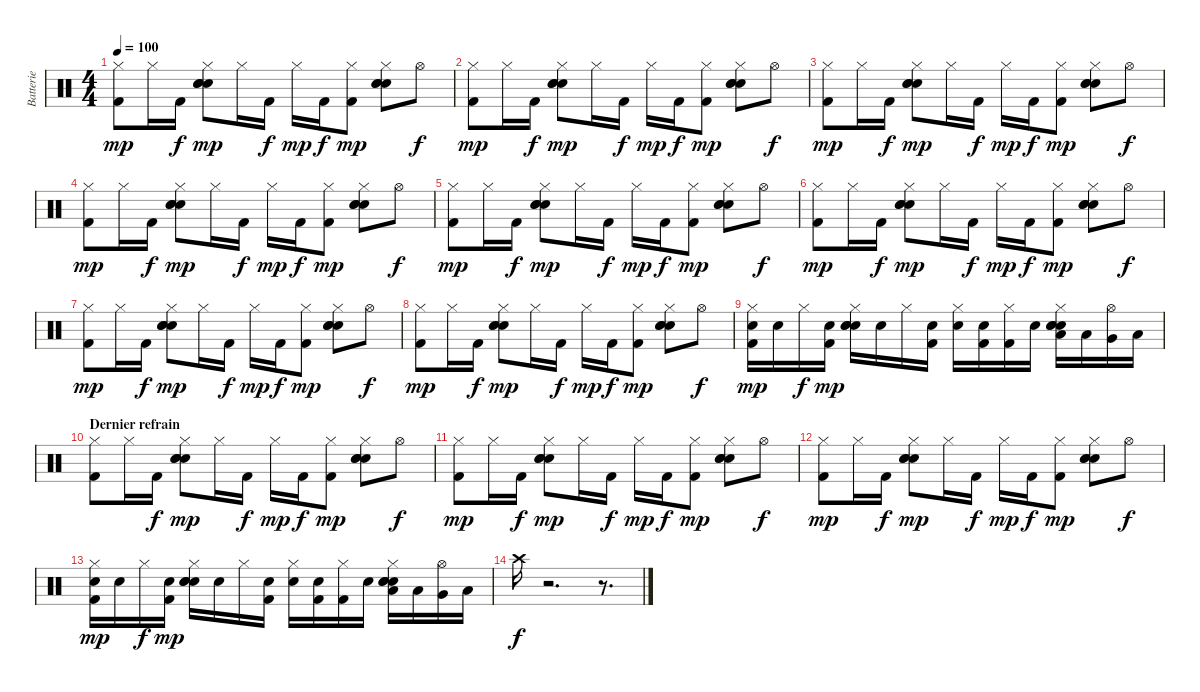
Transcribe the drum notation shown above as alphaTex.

\track ("Batterie" "Batterie") {instrument percussion}
\staff {score}
\articulation defaults
\ts (4 4)
\tempo 100
\clef neutral
\ks c
("Kick (hit) 2" "Hi-Hat (closed)").8{dy mp} "Hi-Hat (closed)".16 "Kick (hit) 2".16{dy f} ("Snare (hit) 2" "Snare (hit) 2" "Electric Snare (hit)" "Hi-Hat (closed)").8{dy mp} "Hi-Hat (closed)".16 "Kick (hit) 2".16{dy f} "Hi-Hat (closed)".16{dy mp} "Kick (hit) 2".16{dy f} ("Kick (hit) 2" "Hi-Hat (closed)").8{dy mp} ("Snare (hit) 2" "Snare (hit) 2" "Electric Snare (hit)" "Hi-Hat (closed)").8 "Hi-Hat (open)".8{dy f} |
("Kick (hit) 2" "Hi-Hat (closed)").8{dy mp} "Hi-Hat (closed)".16 "Kick (hit) 2".16{dy f} ("Snare (hit) 2" "Snare (hit) 2" "Electric Snare (hit)" "Hi-Hat (closed)").8{dy mp} "Hi-Hat (closed)".16 "Kick (hit) 2".16{dy f} "Hi-Hat (closed)".16{dy mp} "Kick (hit) 2".16{dy f} ("Kick (hit) 2" "Hi-Hat (closed)").8{dy mp} ("Snare (hit) 2" "Snare (hit) 2" "Electric Snare (hit)" "Hi-Hat (closed)").8 "Hi-Hat (open)".8{dy f} |
("Kick (hit) 2" "Hi-Hat (closed)").8{dy mp} "Hi-Hat (closed)".16 "Kick (hit) 2".16{dy f} ("Snare (hit) 2" "Snare (hit) 2" "Electric Snare (hit)" "Hi-Hat (closed)").8{dy mp} "Hi-Hat (closed)".16 "Kick (hit) 2".16{dy f} "Hi-Hat (closed)".16{dy mp} "Kick (hit) 2".16{dy f} ("Kick (hit) 2" "Hi-Hat (closed)").8{dy mp} ("Snare (hit) 2" "Snare (hit) 2" "Electric Snare (hit)" "Hi-Hat (closed)").8 "Hi-Hat (open)".8{dy f} |
("Kick (hit) 2" "Hi-Hat (closed)").8{dy mp} "Hi-Hat (closed)".16 "Kick (hit) 2".16{dy f} ("Snare (hit) 2" "Snare (hit) 2" "Electric Snare (hit)" "Hi-Hat (closed)").8{dy mp} "Hi-Hat (closed)".16 "Kick (hit) 2".16{dy f} "Hi-Hat (closed)".16{dy mp} "Kick (hit) 2".16{dy f} ("Kick (hit) 2" "Hi-Hat (closed)").8{dy mp} ("Snare (hit) 2" "Snare (hit) 2" "Electric Snare (hit)" "Hi-Hat (closed)").8 "Hi-Hat (open)".8{dy f} |
("Kick (hit) 2" "Hi-Hat (closed)").8{dy mp} "Hi-Hat (closed)".16 "Kick (hit) 2".16{dy f} ("Snare (hit) 2" "Snare (hit) 2" "Electric Snare (hit)" "Hi-Hat (closed)").8{dy mp} "Hi-Hat (closed)".16 "Kick (hit) 2".16{dy f} "Hi-Hat (closed)".16{dy mp} "Kick (hit) 2".16{dy f} ("Kick (hit) 2" "Hi-Hat (closed)").8{dy mp} ("Snare (hit) 2" "Snare (hit) 2" "Electric Snare (hit)" "Hi-Hat (closed)").8 "Hi-Hat (open)".8{dy f} |
("Kick (hit) 2" "Hi-Hat (closed)").8{dy mp} "Hi-Hat (closed)".16 "Kick (hit) 2".16{dy f} ("Snare (hit) 2" "Snare (hit) 2" "Electric Snare (hit)" "Hi-Hat (closed)").8{dy mp} "Hi-Hat (closed)".16 "Kick (hit) 2".16{dy f} "Hi-Hat (closed)".16{dy mp} "Kick (hit) 2".16{dy f} ("Kick (hit) 2" "Hi-Hat (closed)").8{dy mp} ("Snare (hit) 2" "Snare (hit) 2" "Electric Snare (hit)" "Hi-Hat (closed)").8 "Hi-Hat (open)".8{dy f} |
("Kick (hit) 2" "Hi-Hat (closed)").8{dy mp} "Hi-Hat (closed)".16 "Kick (hit) 2".16{dy f} ("Snare (hit) 2" "Snare (hit) 2" "Electric Snare (hit)" "Hi-Hat (closed)").8{dy mp} "Hi-Hat (closed)".16 "Kick (hit) 2".16{dy f} "Hi-Hat (closed)".16{dy mp} "Kick (hit) 2".16{dy f} ("Kick (hit) 2" "Hi-Hat (closed)").8{dy mp} ("Snare (hit) 2" "Snare (hit) 2" "Electric Snare (hit)" "Hi-Hat (closed)").8 "Hi-Hat (open)".8{dy f} |
("Kick (hit) 2" "Hi-Hat (closed)").8{dy mp} "Hi-Hat (closed)".16 "Kick (hit) 2".16{dy f} ("Snare (hit) 2" "Snare (hit) 2" "Electric Snare (hit)" "Hi-Hat (closed)").8{dy mp} "Hi-Hat (closed)".16 "Kick (hit) 2".16{dy f} "Hi-Hat (closed)".16{dy mp} "Kick (hit) 2".16{dy f} ("Kick (hit) 2" "Hi-Hat (closed)").8{dy mp} ("Snare (hit) 2" "Snare (hit) 2" "Electric Snare (hit)" "Hi-Hat (closed)").8 "Hi-Hat (open)".8{dy f} |
("Electric Snare (hit)" "Kick (hit) 2" "Hi-Hat (closed)").16{dy mp} "Electric Snare (hit)".16 "Hi-Hat (closed)".16{dy f} ("Electric Snare (hit)" "Kick (hit) 2").16{dy mp} ("Snare (hit) 2" "Snare (hit) 2" "Electric Snare (hit)" "Hi-Hat (closed)").16 "Electric Snare (hit)".16 "Hi-Hat (closed)".16 ("Electric Snare (hit)" "Kick (hit) 2").16 ("Electric Snare (hit)" "Hi-Hat (closed)").16 ("Electric Snare (hit)" "Kick (hit) 2").16 ("Kick (hit) 2" "Hi-Hat (closed)").16 "Electric Snare (hit)".16 ("Low Tom (hit)" "Snare (hit) 2" "Snare (hit) 2" "Electric Snare (hit)" "Hi-Hat (closed)").16 "Low Tom (hit)".16 ("Very Low Tom (hit)" "Hi-Hat (open)").16 "Low Floor Tom (hit)".16 |
\section ("" "Dernier refrain")
("Kick (hit) 2" "Hi-Hat (closed)").8 "Hi-Hat (closed)".16 "Kick (hit) 2".16{dy f} ("Snare (hit) 2" "Snare (hit) 2" "Electric Snare (hit)" "Hi-Hat (closed)").8{dy mp} "Hi-Hat (closed)".16 "Kick (hit) 2".16{dy f} "Hi-Hat (closed)".16{dy mp} "Kick (hit) 2".16{dy f} ("Kick (hit) 2" "Hi-Hat (closed)").8{dy mp} ("Snare (hit) 2" "Snare (hit) 2" "Electric Snare (hit)" "Hi-Hat (closed)").8 "Hi-Hat (open)".8{dy f} |
("Kick (hit) 2" "Hi-Hat (closed)").8{dy mp} "Hi-Hat (closed)".16 "Kick (hit) 2".16{dy f} ("Snare (hit) 2" "Snare (hit) 2" "Electric Snare (hit)" "Hi-Hat (closed)").8{dy mp} "Hi-Hat (closed)".16 "Kick (hit) 2".16{dy f} "Hi-Hat (closed)".16{dy mp} "Kick (hit) 2".16{dy f} ("Kick (hit) 2" "Hi-Hat (closed)").8{dy mp} ("Snare (hit) 2" "Snare (hit) 2" "Electric Snare (hit)" "Hi-Hat (closed)").8 "Hi-Hat (open)".8{dy f} |
("Kick (hit) 2" "Hi-Hat (closed)").8{dy mp} "Hi-Hat (closed)".16 "Kick (hit) 2".16{dy f} ("Snare (hit) 2" "Snare (hit) 2" "Electric Snare (hit)" "Hi-Hat (closed)").8{dy mp} "Hi-Hat (closed)".16 "Kick (hit) 2".16{dy f} "Hi-Hat (closed)".16{dy mp} "Kick (hit) 2".16{dy f} ("Kick (hit) 2" "Hi-Hat (closed)").8{dy mp} ("Snare (hit) 2" "Snare (hit) 2" "Electric Snare (hit)" "Hi-Hat (closed)").8 "Hi-Hat (open)".8{dy f} |
("Electric Snare (hit)" "Kick (hit) 2" "Hi-Hat (closed)").16{dy mp} "Electric Snare (hit)".16 "Hi-Hat (closed)".16{dy f} ("Electric Snare (hit)" "Kick (hit) 2").16{dy mp} ("Snare (hit) 2" "Snare (hit) 2" "Electric Snare (hit)" "Hi-Hat (closed)").16 "Electric Snare (hit)".16 "Hi-Hat (closed)".16 ("Electric Snare (hit)" "Kick (hit) 2").16 ("Electric Snare (hit)" "Hi-Hat (closed)").16 ("Electric Snare (hit)" "Kick (hit) 2").16 ("Kick (hit) 2" "Hi-Hat (closed)").16 "Electric Snare (hit)".16 ("Low Tom (hit)" "Snare (hit) 2" "Snare (hit) 2" "Electric Snare (hit)" "Hi-Hat (closed)").16 "Low Tom (hit)".16 ("Very Low Tom (hit)" "Hi-Hat (open)").16 "Low Floor Tom (hit)".16 |
"Crash high (hit)".16{dy f} r.2{d} r.8{d}
